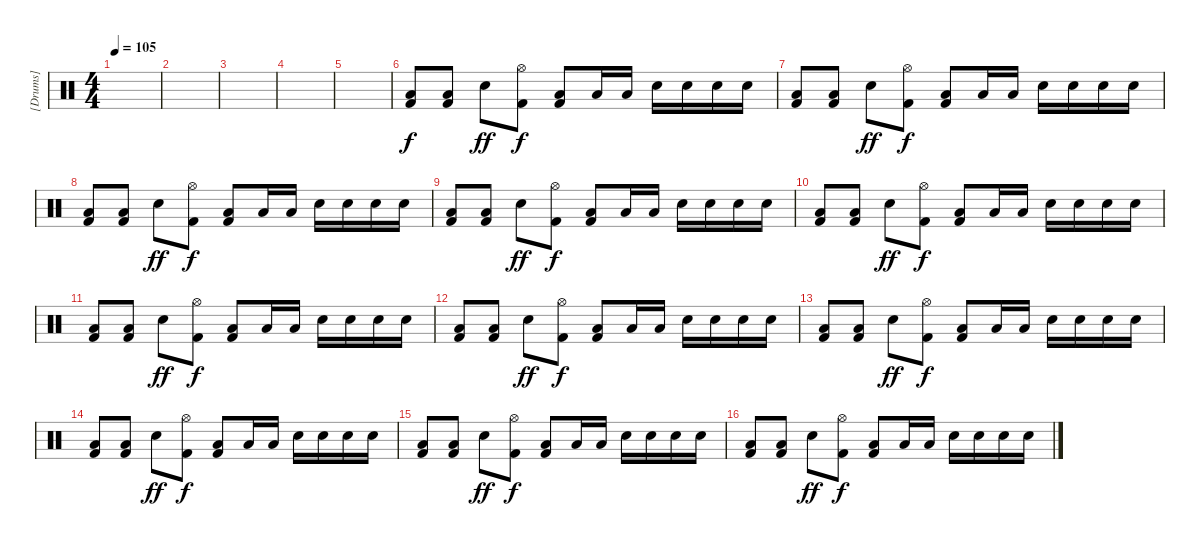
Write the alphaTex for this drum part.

\track ("[Drums]" "[Drums]") {instrument percussion}
\staff {score}
\articulation defaults
\ts (4 4)
\tempo 105
\clef neutral
\ks c
|
\section ("" "")
|
|
|
|
\section ("" "")
("Low Floor Tom (hit)" "Kick (hit) 2").8 ("Low Floor Tom (hit)" "Kick (hit) 2").8 "Snare (hit) 2".8{dy ff} ("Hi-Hat (open)" "Kick (hit) 2").8{dy f} ("Low Floor Tom (hit)" "Kick (hit) 2").8 "Low Floor Tom (hit)".16 "Low Floor Tom (hit)".16 "Snare (hit) 2".16 "Snare (hit) 2".16 "Snare (hit) 2".16 "Snare (hit) 2".16 |
("Low Floor Tom (hit)" "Kick (hit) 2").8 ("Low Floor Tom (hit)" "Kick (hit) 2").8 "Snare (hit) 2".8{dy ff} ("Hi-Hat (open)" "Kick (hit) 2").8{dy f} ("Low Floor Tom (hit)" "Kick (hit) 2").8 "Low Floor Tom (hit)".16 "Low Floor Tom (hit)".16 "Snare (hit) 2".16 "Snare (hit) 2".16 "Snare (hit) 2".16 "Snare (hit) 2".16 |
("Low Floor Tom (hit)" "Kick (hit) 2").8 ("Low Floor Tom (hit)" "Kick (hit) 2").8 "Snare (hit) 2".8{dy ff} ("Hi-Hat (open)" "Kick (hit) 2").8{dy f} ("Low Floor Tom (hit)" "Kick (hit) 2").8 "Low Floor Tom (hit)".16 "Low Floor Tom (hit)".16 "Snare (hit) 2".16 "Snare (hit) 2".16 "Snare (hit) 2".16 "Snare (hit) 2".16 |
("Low Floor Tom (hit)" "Kick (hit) 2").8 ("Low Floor Tom (hit)" "Kick (hit) 2").8 "Snare (hit) 2".8{dy ff} ("Hi-Hat (open)" "Kick (hit) 2").8{dy f} ("Low Floor Tom (hit)" "Kick (hit) 2").8 "Low Floor Tom (hit)".16 "Low Floor Tom (hit)".16 "Snare (hit) 2".16 "Snare (hit) 2".16 "Snare (hit) 2".16 "Snare (hit) 2".16 |
\section ("" "")
("Low Floor Tom (hit)" "Kick (hit) 2").8 ("Low Floor Tom (hit)" "Kick (hit) 2").8 "Snare (hit) 2".8{dy ff} ("Hi-Hat (open)" "Kick (hit) 2").8{dy f} ("Low Floor Tom (hit)" "Kick (hit) 2").8 "Low Floor Tom (hit)".16 "Low Floor Tom (hit)".16 "Snare (hit) 2".16 "Snare (hit) 2".16 "Snare (hit) 2".16 "Snare (hit) 2".16 |
("Low Floor Tom (hit)" "Kick (hit) 2").8 ("Low Floor Tom (hit)" "Kick (hit) 2").8 "Snare (hit) 2".8{dy ff} ("Hi-Hat (open)" "Kick (hit) 2").8{dy f} ("Low Floor Tom (hit)" "Kick (hit) 2").8 "Low Floor Tom (hit)".16 "Low Floor Tom (hit)".16 "Snare (hit) 2".16 "Snare (hit) 2".16 "Snare (hit) 2".16 "Snare (hit) 2".16 |
("Low Floor Tom (hit)" "Kick (hit) 2").8 ("Low Floor Tom (hit)" "Kick (hit) 2").8 "Snare (hit) 2".8{dy ff} ("Hi-Hat (open)" "Kick (hit) 2").8{dy f} ("Low Floor Tom (hit)" "Kick (hit) 2").8 "Low Floor Tom (hit)".16 "Low Floor Tom (hit)".16 "Snare (hit) 2".16 "Snare (hit) 2".16 "Snare (hit) 2".16 "Snare (hit) 2".16 |
("Low Floor Tom (hit)" "Kick (hit) 2").8 ("Low Floor Tom (hit)" "Kick (hit) 2").8 "Snare (hit) 2".8{dy ff} ("Hi-Hat (open)" "Kick (hit) 2").8{dy f} ("Low Floor Tom (hit)" "Kick (hit) 2").8 "Low Floor Tom (hit)".16 "Low Floor Tom (hit)".16 "Snare (hit) 2".16 "Snare (hit) 2".16 "Snare (hit) 2".16 "Snare (hit) 2".16 |
("Low Floor Tom (hit)" "Kick (hit) 2").8 ("Low Floor Tom (hit)" "Kick (hit) 2").8 "Snare (hit) 2".8{dy ff} ("Hi-Hat (open)" "Kick (hit) 2").8{dy f} ("Low Floor Tom (hit)" "Kick (hit) 2").8 "Low Floor Tom (hit)".16 "Low Floor Tom (hit)".16 "Snare (hit) 2".16 "Snare (hit) 2".16 "Snare (hit) 2".16 "Snare (hit) 2".16 |
("Low Floor Tom (hit)" "Kick (hit) 2").8 ("Low Floor Tom (hit)" "Kick (hit) 2").8 "Snare (hit) 2".8{dy ff} ("Hi-Hat (open)" "Kick (hit) 2").8{dy f} ("Low Floor Tom (hit)" "Kick (hit) 2").8 "Low Floor Tom (hit)".16 "Low Floor Tom (hit)".16 "Snare (hit) 2".16 "Snare (hit) 2".16 "Snare (hit) 2".16 "Snare (hit) 2".16 |
("Low Floor Tom (hit)" "Kick (hit) 2").8 ("Low Floor Tom (hit)" "Kick (hit) 2").8 "Snare (hit) 2".8{dy ff} ("Hi-Hat (open)" "Kick (hit) 2").8{dy f} ("Low Floor Tom (hit)" "Kick (hit) 2").8 "Low Floor Tom (hit)".16 "Low Floor Tom (hit)".16 "Snare (hit) 2".16 "Snare (hit) 2".16 "Snare (hit) 2".16 "Snare (hit) 2".16
